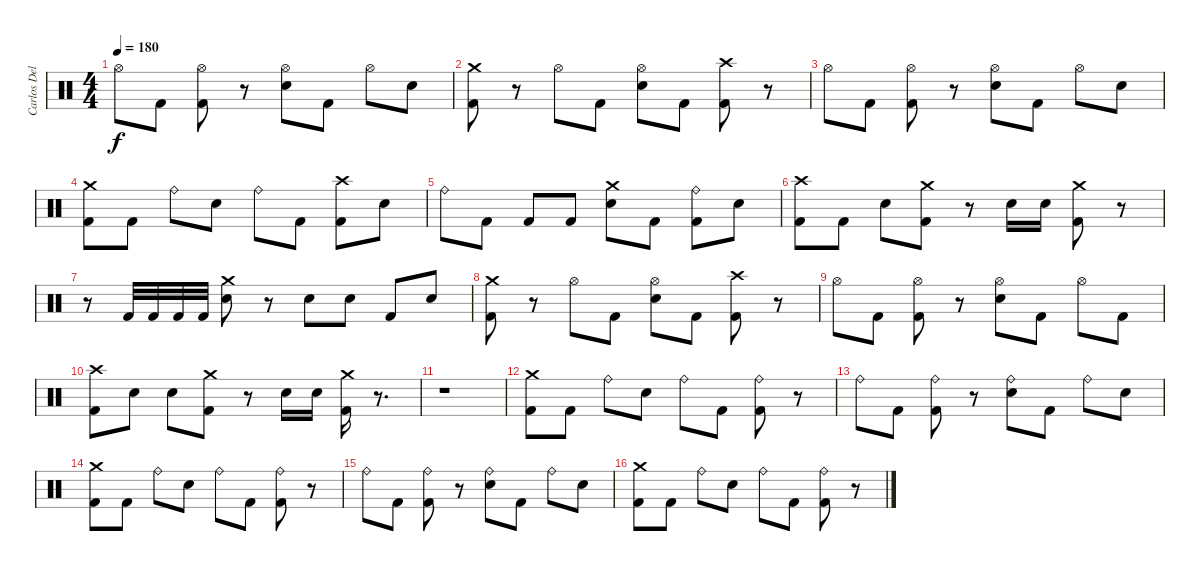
\track ("Carlos Delgado" "Carlos Del") {instrument percussion}
\staff {score}
\articulation defaults
\ts (4 4)
\tempo 180
\clef neutral
\ks c "Hi-Hat (open)".8{dy f} "Kick (hit) 2".8
("Hi-Hat (open)" "Kick (hit) 2").8 r.8 ("Hi-Hat (open)" "Electric Snare (hit)").8 "Kick (hit) 2".8 "Hi-Hat (open)".8 "Electric Snare (hit)".8 |
("Crash medium (hit)" "Kick (hit) 2").8 r.8 "Hi-Hat (open)".8 "Kick (hit) 2".8 ("Hi-Hat (open)" "Electric Snare (hit)").8 "Kick (hit) 2".8 ("Crash high (hit)" "Kick (hit) 2").8 r.8 |
"Hi-Hat (open)".8 "Kick (hit) 2".8 ("Hi-Hat (open)" "Kick (hit) 2").8 r.8 ("Electric Snare (hit)" "Hi-Hat (open)").8 "Kick (hit) 2".8 "Hi-Hat (open)".8 "Electric Snare (hit)".8 |
("Crash medium (hit)" "Kick (hit) 2").8 "Kick (hit) 2".8 "Ride (bell)".8 "Electric Snare (hit)".8 "Ride (bell)".8 "Kick (hit) 2".8 ("Kick (hit) 2" "Crash high (hit)").8 "Electric Snare (hit)".8 |
"Ride (bell)".8 "Kick (hit) 2".8 "Kick (hit) 2".8 "Kick (hit) 2".8 ("Crash medium (hit)" "Electric Snare (hit)").8 "Kick (hit) 2".8 ("Ride (bell)" "Kick (hit) 2").8 "Electric Snare (hit)".8 |
("Kick (hit) 2" "Crash high (hit)").8 "Kick (hit) 2".8 "Electric Snare (hit)".8 ("Crash medium (hit)" "Kick (hit) 2").8 r.8 "Electric Snare (hit)".16 "Electric Snare (hit)".16 ("Crash medium (hit)" "Kick (hit) 2").8 r.8 |
r.8 "Kick (hit) 2".32 "Kick (hit) 2".32 "Kick (hit) 2".32 "Kick (hit) 2".32 ("Electric Snare (hit)" "Crash medium (hit)").8 r.8 "Electric Snare (hit)".8 "Electric Snare (hit)".8 "Kick (hit) 2".8 "Electric Snare (hit)".8 |
("Crash medium (hit)" "Kick (hit) 2").8 r.8 "Hi-Hat (open)".8 "Kick (hit) 2".8 ("Hi-Hat (open)" "Electric Snare (hit)").8 "Kick (hit) 2".8 ("Crash high (hit)" "Kick (hit) 2").8 r.8 |
"Hi-Hat (open)".8 "Kick (hit) 2".8 ("Hi-Hat (open)" "Kick (hit) 2").8 r.8 ("Hi-Hat (open)" "Electric Snare (hit)").8 "Kick (hit) 2".8 "Hi-Hat (open)".8 "Kick (hit) 2".8 |
("Crash high (hit)" "Kick (hit) 2").8 "Electric Snare (hit)".8 "Electric Snare (hit)".8 ("Crash medium (hit)" "Kick (hit) 2").8 r.8 "Electric Snare (hit)".16 "Electric Snare (hit)".16 ("Crash medium (hit)" "Kick (hit) 2").16 r.8{d} |
r.1 |
("Kick (hit) 2" "Crash medium (hit)").8 "Kick (hit) 2".8 "Ride (bell)".8 "Electric Snare (hit)".8 "Ride (bell)".8 "Kick (hit) 2".8 ("Kick (hit) 2" "Ride (bell)").8 r.8 |
"Ride (bell)".8 "Kick (hit) 2".8 ("Ride (bell)" "Kick (hit) 2").8 r.8 ("Ride (bell)" "Electric Snare (hit)").8 "Kick (hit) 2".8 "Ride (bell)".8 "Electric Snare (hit)".8 |
("Kick (hit) 2" "Crash medium (hit)").8 "Kick (hit) 2".8 "Ride (bell)".8 "Electric Snare (hit)".8 "Ride (bell)".8 "Kick (hit) 2".8 ("Kick (hit) 2" "Ride (bell)").8 r.8 |
"Ride (bell)".8 "Kick (hit) 2".8 ("Ride (bell)" "Kick (hit) 2").8 r.8 ("Ride (bell)" "Electric Snare (hit)").8 "Kick (hit) 2".8 "Ride (bell)".8 "Electric Snare (hit)".8 |
("Kick (hit) 2" "Crash medium (hit)").8 "Kick (hit) 2".8 "Ride (bell)".8 "Electric Snare (hit)".8 "Ride (bell)".8 "Kick (hit) 2".8 ("Kick (hit) 2" "Ride (bell)").8 r.8
